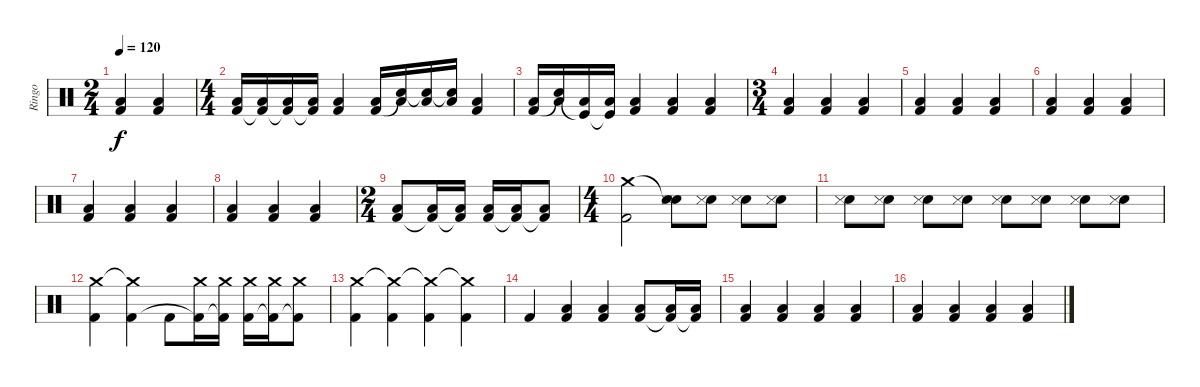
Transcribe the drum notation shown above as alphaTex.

\track ("Ringo" "Ringo") {instrument percussion}
\staff {score}
\articulation defaults
\ts (2 4)
\tempo 120
\clef neutral
\ks c
("Low Floor Tom (hit)" "Kick (hit) 2").4{dy f} ("Low Floor Tom (hit)" "Kick (hit) 2").4 |
\ts (4 4)
("Low Floor Tom (hit)" "Kick (hit) 2").16 ("Low Floor Tom (hit)" "Kick (hit) 2"{t}).16 ("Low Floor Tom (hit)" "Kick (hit) 2"{t}).16 ("Low Floor Tom (hit)" "Kick (hit) 2"{t}).16 ("Low Floor Tom (hit)" "Kick (hit) 2").4 ("Low Floor Tom (hit)" "Kick (hit) 2").16 ("Low Floor Tom (hit)" "Snare (hit)"{t}).16 ("Low Floor Tom (hit)" "Snare (hit)"{t}).16 ("Low Floor Tom (hit)" "Snare (hit)"{t}).16 ("Low Floor Tom (hit)" "Kick (hit) 2").4 |
("Low Floor Tom (hit)" "Kick (hit) 2").16 ("Low Floor Tom (hit)" "Snare (hit)"{t}).16 ("Low Floor Tom (hit)" "Kick (hit)"{t}).16 ("Low Floor Tom (hit)" "Kick (hit)"{t}).16 ("Low Floor Tom (hit)" "Kick (hit) 2").4 ("Low Floor Tom (hit)" "Kick (hit) 2").4 ("Low Floor Tom (hit)" "Kick (hit) 2").4 |
\ts (3 4)
("Low Floor Tom (hit)" "Kick (hit) 2").4 ("Low Floor Tom (hit)" "Kick (hit) 2").4 ("Low Floor Tom (hit)" "Kick (hit) 2").4 |
("Low Floor Tom (hit)" "Kick (hit) 2").4 ("Low Floor Tom (hit)" "Kick (hit) 2").4 ("Low Floor Tom (hit)" "Kick (hit) 2").4 |
("Low Floor Tom (hit)" "Kick (hit) 2").4 ("Low Floor Tom (hit)" "Kick (hit) 2").4 ("Low Floor Tom (hit)" "Kick (hit) 2").4 |
("Low Floor Tom (hit)" "Kick (hit) 2").4 ("Low Floor Tom (hit)" "Kick (hit) 2").4 ("Low Floor Tom (hit)" "Kick (hit) 2").4 |
("Low Floor Tom (hit)" "Kick (hit) 2").4 ("Low Floor Tom (hit)" "Kick (hit) 2").4 ("Low Floor Tom (hit)" "Kick (hit) 2").4 |
\ts (2 4)
("Low Floor Tom (hit)" "Kick (hit) 2").8 ("Low Floor Tom (hit)" "Kick (hit) 2"{t}).16 ("Low Floor Tom (hit)" "Kick (hit) 2"{t}).16 ("Low Floor Tom (hit)" "Kick (hit) 2").16 ("Low Floor Tom (hit)" "Kick (hit) 2"{t}).16 ("Low Floor Tom (hit)" "Kick (hit) 2"{t}).8 |
\ts (4 4)
("Crash medium (hit)" "Kick (hit) 2").2 ("Snare (hit)"{t} "Snare (hit) 2" "Snare (side stick) 3").8 ("Snare (hit) 2" "Snare (side stick) 3").8 ("Snare (hit) 2" "Snare (side stick) 3").8 ("Snare (hit) 2" "Snare (side stick) 3").8 |
("Snare (hit) 2" "Snare (side stick) 3").8 ("Snare (hit) 2" "Snare (side stick) 3").8 ("Snare (hit) 2" "Snare (side stick) 3").8 ("Snare (hit) 2" "Snare (side stick) 3").8 ("Snare (hit) 2" "Snare (side stick) 3").8 ("Snare (hit) 2" "Snare (side stick) 3").8 ("Snare (hit) 2" "Snare (side stick) 3").8 ("Snare (hit) 2" "Snare (side stick) 3").8 |
("Crash medium (hit)" "Kick (hit) 2").4 ("Crash medium (hit)"{t} "Kick (hit) 2").4 "Kick (hit) 2".8 ("Crash medium (hit)" "Kick (hit) 2"{t}).16 ("Crash medium (hit)" "Kick (hit) 2"{t}).16 ("Crash medium (hit)" "Kick (hit) 2").16 ("Crash medium (hit)" "Kick (hit) 2"{t}).16 ("Crash medium (hit)" "Kick (hit) 2"{t}).8 |
("Crash medium (hit)" "Kick (hit) 2").4 ("Crash medium (hit)"{t} "Kick (hit) 2").4 ("Crash medium (hit)"{t} "Kick (hit) 2").4 ("Crash medium (hit)"{t} "Kick (hit) 2").4 |
"Kick (hit) 2".4 ("Low Floor Tom (hit)" "Kick (hit) 2").4 ("Low Floor Tom (hit)" "Kick (hit) 2").4 ("Low Floor Tom (hit)" "Kick (hit) 2").8 ("Low Floor Tom (hit)" "Kick (hit) 2"{t}).16 ("Low Floor Tom (hit)" "Kick (hit) 2"{t}).16 |
("Low Floor Tom (hit)" "Kick (hit) 2").4 ("Low Floor Tom (hit)" "Kick (hit) 2").4 ("Low Floor Tom (hit)" "Kick (hit) 2").4 ("Low Floor Tom (hit)" "Kick (hit) 2").4 |
("Low Floor Tom (hit)" "Kick (hit) 2").4 ("Low Floor Tom (hit)" "Kick (hit) 2").4 ("Low Floor Tom (hit)" "Kick (hit) 2").4 ("Low Floor Tom (hit)" "Kick (hit) 2").4
